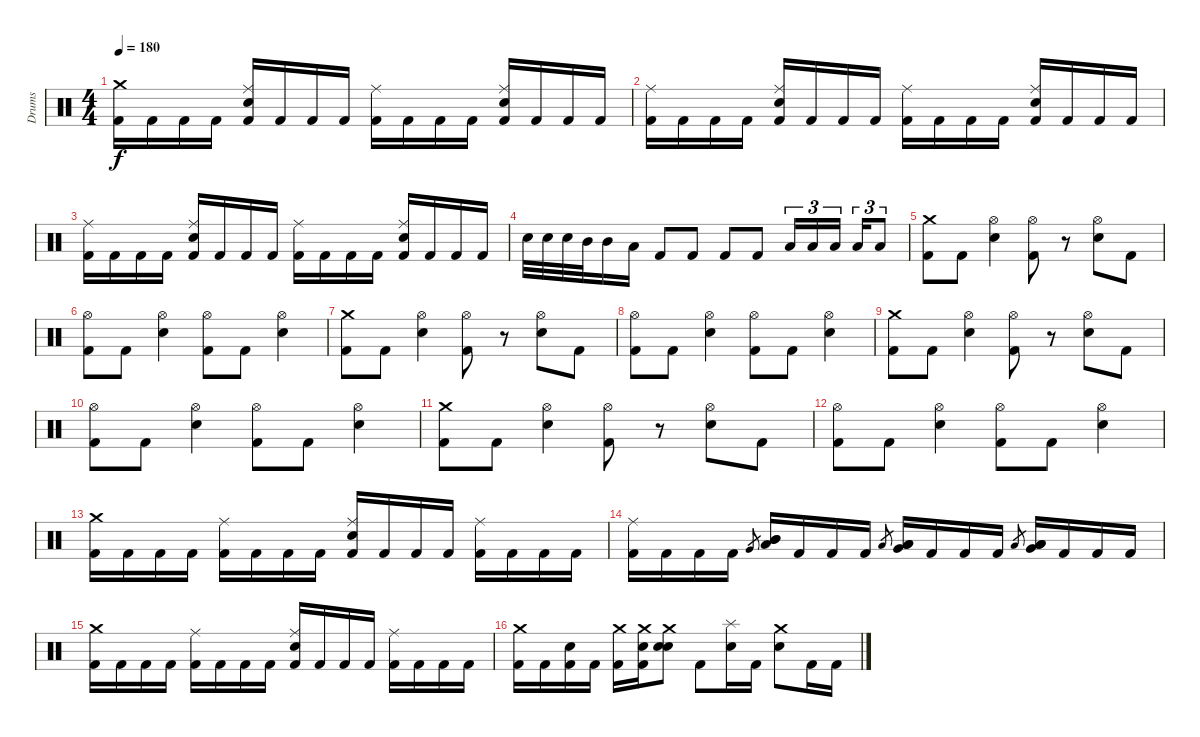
\track ("Drums" "Drums") {instrument percussion}
\staff {score}
\articulation defaults
\ts (4 4)
\tempo 180
\clef neutral
\ks c
("Crash medium (hit)" "Kick (hit) 2").16{dy f} "Kick (hit) 2".16 "Kick (hit) 2".16 "Kick (hit) 2".16 ("Ride (middle)" "Kick (hit) 2" "Electric Snare (hit)").16 "Kick (hit) 2".16 "Kick (hit) 2".16 "Kick (hit) 2".16 ("Ride (middle)" "Kick (hit) 2").16 "Kick (hit) 2".16 "Kick (hit) 2".16 "Kick (hit) 2".16 ("Ride (middle)" "Kick (hit) 2" "Electric Snare (hit)").16 "Kick (hit) 2".16 "Kick (hit) 2".16 "Kick (hit) 2".16 |
("Ride (middle)" "Kick (hit) 2").16 "Kick (hit) 2".16 "Kick (hit) 2".16 "Kick (hit) 2".16 ("Ride (middle)" "Kick (hit) 2" "Electric Snare (hit)").16 "Kick (hit) 2".16 "Kick (hit) 2".16 "Kick (hit) 2".16 ("Ride (middle)" "Kick (hit) 2").16 "Kick (hit) 2".16 "Kick (hit) 2".16 "Kick (hit) 2".16 ("Ride (middle)" "Kick (hit) 2" "Electric Snare (hit)").16 "Kick (hit) 2".16 "Kick (hit) 2".16 "Kick (hit) 2".16 |
("Ride (middle)" "Kick (hit) 2").16 "Kick (hit) 2".16 "Kick (hit) 2".16 "Kick (hit) 2".16 ("Ride (middle)" "Kick (hit) 2" "Electric Snare (hit)").16 "Kick (hit) 2".16 "Kick (hit) 2".16 "Kick (hit) 2".16 ("Ride (middle)" "Kick (hit) 2").16 "Kick (hit) 2".16 "Kick (hit) 2".16 "Kick (hit) 2".16 ("Ride (middle)" "Kick (hit) 2" "Electric Snare (hit)").16 "Kick (hit) 2".16 "Kick (hit) 2".16 "Kick (hit) 2".16 |
"Electric Snare (hit)".32 "Electric Snare (hit)".32 "Electric Snare (hit)".32 "Mid Tom (hit)".32 "Mid Tom (hit)".16 "Low Tom (hit)".16 "Kick (hit) 2".8 "Kick (hit) 2".8 "Kick (hit) 2".8 "Kick (hit) 2".8 "Low Tom (hit)".16{tu (3 2)} "Low Tom (hit)".16{tu (3 2)} "Low Tom (hit)".16{tu (3 2)} "Low Tom (hit)".16{tu (3 2)} "Low Tom (hit)".8{tu (3 2)} |
("Kick (hit) 2" "Crash medium (hit)").8 "Kick (hit) 2".8 ("Hi-Hat (open)" "Electric Snare (hit)").4 ("Hi-Hat (open)" "Kick (hit) 2").8 r.8 ("Hi-Hat (open)" "Electric Snare (hit)").8 "Kick (hit) 2".8 |
("Kick (hit) 2" "Hi-Hat (open)").8 "Kick (hit) 2".8 ("Hi-Hat (open)" "Electric Snare (hit)").4 ("Hi-Hat (open)" "Kick (hit) 2").8 "Kick (hit) 2".8 ("Hi-Hat (open)" "Electric Snare (hit)").4 |
("Kick (hit) 2" "Crash medium (hit)").8 "Kick (hit) 2".8 ("Hi-Hat (open)" "Electric Snare (hit)").4 ("Hi-Hat (open)" "Kick (hit) 2").8 r.8 ("Hi-Hat (open)" "Electric Snare (hit)").8 "Kick (hit) 2".8 |
("Kick (hit) 2" "Hi-Hat (open)").8 "Kick (hit) 2".8 ("Hi-Hat (open)" "Electric Snare (hit)").4 ("Hi-Hat (open)" "Kick (hit) 2").8 "Kick (hit) 2".8 ("Hi-Hat (open)" "Electric Snare (hit)").4 |
("Kick (hit) 2" "Crash medium (hit)").8 "Kick (hit) 2".8 ("Hi-Hat (open)" "Electric Snare (hit)").4 ("Hi-Hat (open)" "Kick (hit) 2").8 r.8 ("Hi-Hat (open)" "Electric Snare (hit)").8 "Kick (hit) 2".8 |
("Kick (hit) 2" "Hi-Hat (open)").8 "Kick (hit) 2".8 ("Hi-Hat (open)" "Electric Snare (hit)").4 ("Hi-Hat (open)" "Kick (hit) 2").8 "Kick (hit) 2".8 ("Hi-Hat (open)" "Electric Snare (hit)").4 |
("Kick (hit) 2" "Crash medium (hit)").8 "Kick (hit) 2".8 ("Hi-Hat (open)" "Electric Snare (hit)").4 ("Hi-Hat (open)" "Kick (hit) 2").8 r.8 ("Hi-Hat (open)" "Electric Snare (hit)").8 "Kick (hit) 2".8 |
("Kick (hit) 2" "Hi-Hat (open)").8 "Kick (hit) 2".8 ("Hi-Hat (open)" "Electric Snare (hit)").4 ("Hi-Hat (open)" "Kick (hit) 2").8 "Kick (hit) 2".8 ("Hi-Hat (open)" "Electric Snare (hit)").4 |
("Crash medium (hit)" "Kick (hit) 2").16 "Kick (hit) 2".16 "Kick (hit) 2".16 "Kick (hit) 2".16 ("Ride (middle)" "Kick (hit) 2").16 "Kick (hit) 2".16 "Kick (hit) 2".16 "Kick (hit) 2".16 ("Ride (middle)" "Kick (hit) 2" "Electric Snare (hit)").16 "Kick (hit) 2".16 "Kick (hit) 2".16 "Kick (hit) 2".16 ("Ride (middle)" "Kick (hit) 2").16 "Kick (hit) 2".16 "Kick (hit) 2".16 "Kick (hit) 2".16 |
("Ride (middle)" "Kick (hit) 2").16 "Kick (hit) 2".16 "Kick (hit) 2".16 "Kick (hit) 2".16 "Very Low Tom (hit)".8{gr} ("Mid Tom (hit)" "Mid Tom (hit)" "Low Tom (hit)").16 "Kick (hit) 2".16 "Kick (hit) 2".16 "Kick (hit) 2".16 "Low Floor Tom (hit)".8{gr} ("Low Tom (hit)" "Low Tom (hit)" "Very Low Tom (hit)").16 "Kick (hit) 2".16 "Kick (hit) 2".16 "Kick (hit) 2".16 "Low Floor Tom (hit)".8{gr} ("Low Tom (hit)" "Very Low Tom (hit)" "Low Floor Tom (hit)").16 "Kick (hit) 2".16 "Kick (hit) 2".16 "Kick (hit) 2".16 |
("Crash medium (hit)" "Kick (hit) 2").16 "Kick (hit) 2".16 "Kick (hit) 2".16 "Kick (hit) 2".16 ("Ride (middle)" "Kick (hit) 2").16 "Kick (hit) 2".16 "Kick (hit) 2".16 "Kick (hit) 2".16 ("Ride (middle)" "Kick (hit) 2" "Electric Snare (hit)").16 "Kick (hit) 2".16 "Kick (hit) 2".16 "Kick (hit) 2".16 ("Ride (middle)" "Kick (hit) 2").16 "Kick (hit) 2".16 "Kick (hit) 2".16 "Kick (hit) 2".16 |
("Crash medium (hit)" "Kick (hit) 2").16 "Kick (hit) 2".16 ("Kick (hit) 2" "Electric Snare (hit)").16 "Kick (hit) 2".16 ("Crash medium (hit)" "Kick (hit) 2").16 ("Crash medium (hit)" "Kick (hit) 2" "Electric Snare (hit)").16 ("Crash medium (hit)" "Electric Snare (hit)" "Electric Snare (hit)").8 "Kick (hit) 2".8 ("Splash (hit)" "Electric Snare (hit)").16 "Kick (hit) 2".16 ("Crash medium (hit)" "Electric Snare (hit)").8 "Kick (hit) 2".16 "Kick (hit) 2".16
